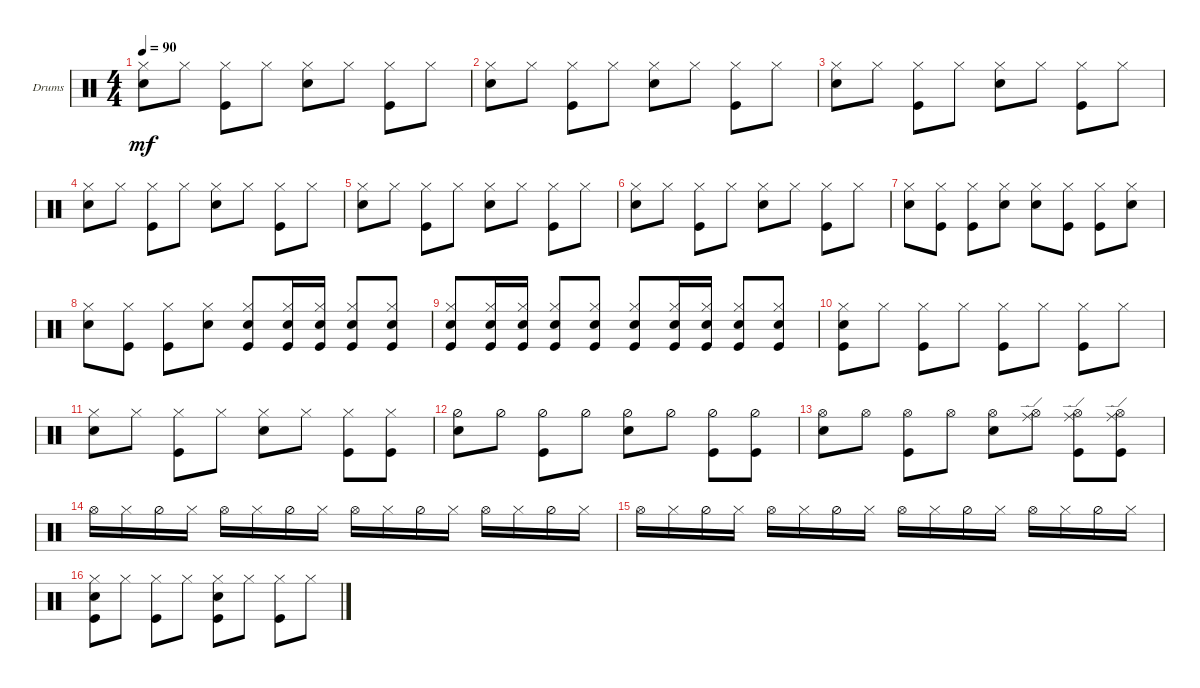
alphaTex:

\defaultSystemsLayout 4
\bracketExtendMode groupsimilarinstruments
\firstSystemTrackNameOrientation horizontal
\otherSystemsTrackNameOrientation horizontal
\track ("Drumkit" "Drums") {instrument percussion}
\staff {score}
\articulation defaults
\ts (4 4)
\tempo 90
\clef neutral
\ks c
("Snare (hit) 2" "Hi-Hat (closed)").8{dy mf} "Hi-Hat (closed)".8 ("Kick (hit)" "Hi-Hat (closed)").8 "Hi-Hat (closed)".8 ("Snare (hit) 2" "Hi-Hat (closed)").8 "Hi-Hat (closed)".8 ("Kick (hit)" "Hi-Hat (closed)").8 "Hi-Hat (closed)".8 |
("Snare (hit) 2" "Hi-Hat (closed)").8 "Hi-Hat (closed)".8 ("Kick (hit)" "Hi-Hat (closed)").8 "Hi-Hat (closed)".8 ("Snare (hit) 2" "Hi-Hat (closed)").8 "Hi-Hat (closed)".8 ("Kick (hit)" "Hi-Hat (closed)").8 "Hi-Hat (closed)".8 |
("Snare (hit) 2" "Hi-Hat (closed)").8 "Hi-Hat (closed)".8 ("Kick (hit)" "Hi-Hat (closed)").8 "Hi-Hat (closed)".8 ("Snare (hit) 2" "Hi-Hat (closed)").8 "Hi-Hat (closed)".8 ("Kick (hit)" "Hi-Hat (closed)").8 "Hi-Hat (closed)".8 |
("Snare (hit) 2" "Hi-Hat (closed)").8 "Hi-Hat (closed)".8 ("Kick (hit)" "Hi-Hat (closed)").8 "Hi-Hat (closed)".8 ("Snare (hit) 2" "Hi-Hat (closed)").8 "Hi-Hat (closed)".8 ("Kick (hit)" "Hi-Hat (closed)").8 "Hi-Hat (closed)".8 |
("Snare (hit) 2" "Hi-Hat (closed)").8 "Hi-Hat (closed)".8 ("Kick (hit)" "Hi-Hat (closed)").8 "Hi-Hat (closed)".8 ("Snare (hit) 2" "Hi-Hat (closed)").8 "Hi-Hat (closed)".8 ("Kick (hit)" "Hi-Hat (closed)").8 "Hi-Hat (closed)".8 |
("Snare (hit) 2" "Hi-Hat (closed)").8 "Hi-Hat (closed)".8 ("Kick (hit)" "Hi-Hat (closed)").8 "Hi-Hat (closed)".8 ("Snare (hit) 2" "Hi-Hat (closed)").8 "Hi-Hat (closed)".8 ("Kick (hit)" "Hi-Hat (closed)").8 "Hi-Hat (closed)".8 |
("Snare (hit) 2" "Hi-Hat (closed)").8 ("Hi-Hat (closed)" "Kick (hit)").8 ("Kick (hit)" "Hi-Hat (closed)").8 ("Hi-Hat (closed)" "Snare (hit) 2").8 ("Snare (hit) 2" "Hi-Hat (closed)").8 ("Hi-Hat (closed)" "Kick (hit)").8 ("Kick (hit)" "Hi-Hat (closed)").8 ("Hi-Hat (closed)" "Snare (hit) 2").8 |
("Snare (hit) 2" "Hi-Hat (closed)").8 ("Hi-Hat (closed)" "Kick (hit)").8 ("Kick (hit)" "Hi-Hat (closed)").8 ("Hi-Hat (closed)" "Snare (hit) 2").8 ("Snare (hit) 2" "Hi-Hat (closed)" "Kick (hit)").8 ("Hi-Hat (closed)" "Kick (hit)" "Snare (hit) 2").16 ("Kick (hit)" "Hi-Hat (closed)" "Snare (hit) 2").16 ("Hi-Hat (closed)" "Kick (hit)" "Snare (hit) 2").8 ("Snare (hit) 2" "Kick (hit)" "Hi-Hat (closed)").8 |
("Snare (hit) 2" "Kick (hit)" "Hi-Hat (closed)").8 ("Snare (hit) 2" "Kick (hit)" "Hi-Hat (closed)").16 ("Snare (hit) 2" "Kick (hit)" "Hi-Hat (closed)").16 ("Snare (hit) 2" "Kick (hit)" "Hi-Hat (closed)").8 ("Snare (hit) 2" "Kick (hit)" "Hi-Hat (closed)").8 ("Snare (hit) 2" "Kick (hit)" "Hi-Hat (closed)").8 ("Snare (hit) 2" "Kick (hit)" "Hi-Hat (closed)").16 ("Snare (hit) 2" "Kick (hit)" "Hi-Hat (closed)").16 ("Snare (hit) 2" "Kick (hit)" "Hi-Hat (closed)").8 ("Snare (hit) 2" "Kick (hit)" "Hi-Hat (closed)").8 |
("Snare (hit) 2" "Kick (hit)" "Hi-Hat (closed)").8 "Hi-Hat (closed)".8 ("Kick (hit)" "Hi-Hat (closed)").8 "Hi-Hat (closed)".8 ("Hi-Hat (closed)" "Kick (hit)").8 "Hi-Hat (closed)".8 ("Kick (hit)" "Hi-Hat (closed)").8 "Hi-Hat (closed)".8 |
("Snare (hit) 2" "Hi-Hat (closed)").8 "Hi-Hat (closed)".8 ("Kick (hit)" "Hi-Hat (closed)").8 "Hi-Hat (closed)".8 ("Snare (hit) 2" "Hi-Hat (closed)").8 "Hi-Hat (closed)".8 ("Kick (hit)" "Hi-Hat (closed)").8 ("Hi-Hat (closed)" "Kick (hit)").8 |
("Snare (hit) 2" "Hi-Hat (half)").8 "Hi-Hat (half)".8 ("Kick (hit)" "Hi-Hat (half)").8 "Hi-Hat (half)".8 ("Snare (hit) 2" "Hi-Hat (half)").8 "Hi-Hat (half)".8 ("Kick (hit)" "Hi-Hat (half)").8 ("Hi-Hat (half)" "Kick (hit)").8 |
("Snare (hit) 2" "Hi-Hat (open)").8 "Hi-Hat (open)".8 ("Kick (hit)" "Hi-Hat (open)").8 "Hi-Hat (open)".8 ("Snare (hit) 2" "Hi-Hat (open)").8 ("Hi-Hat (open)" "Ride (edge)").8 ("Kick (hit)" "Hi-Hat (open)" "Ride (edge)").8 ("Hi-Hat (open)" "Kick (hit)" "Ride (edge)").8 |
"Hi-Hat (open)".16 "Hi-Hat (closed)".16 "Hi-Hat (half)".16 "Hi-Hat (closed)".16 "Hi-Hat (open)".16 "Hi-Hat (closed)".16 "Hi-Hat (half)".16 "Hi-Hat (closed)".16 "Hi-Hat (open)".16 "Hi-Hat (closed)".16 "Hi-Hat (half)".16 "Hi-Hat (closed)".16 "Hi-Hat (open)".16 "Hi-Hat (closed)".16 "Hi-Hat (half)".16 "Hi-Hat (closed)".16 |
"Hi-Hat (open)".16 "Hi-Hat (closed)".16 "Hi-Hat (half)".16 "Hi-Hat (closed)".16 "Hi-Hat (open)".16 "Hi-Hat (closed)".16 "Hi-Hat (half)".16 "Hi-Hat (closed)".16 "Hi-Hat (open)".16 "Hi-Hat (closed)".16 "Hi-Hat (half)".16 "Hi-Hat (closed)".16 "Hi-Hat (open)".16 "Hi-Hat (closed)".16 "Hi-Hat (half)".16 "Hi-Hat (closed)".16 |
("Snare (hit) 2" "Hi-Hat (closed)" "Kick (hit)").8 "Hi-Hat (closed)".8 ("Kick (hit)" "Hi-Hat (closed)").8 "Hi-Hat (closed)".8 ("Snare (hit) 2" "Hi-Hat (closed)" "Kick (hit)").8 "Hi-Hat (closed)".8 ("Kick (hit)" "Hi-Hat (closed)").8 "Hi-Hat (closed)".8
